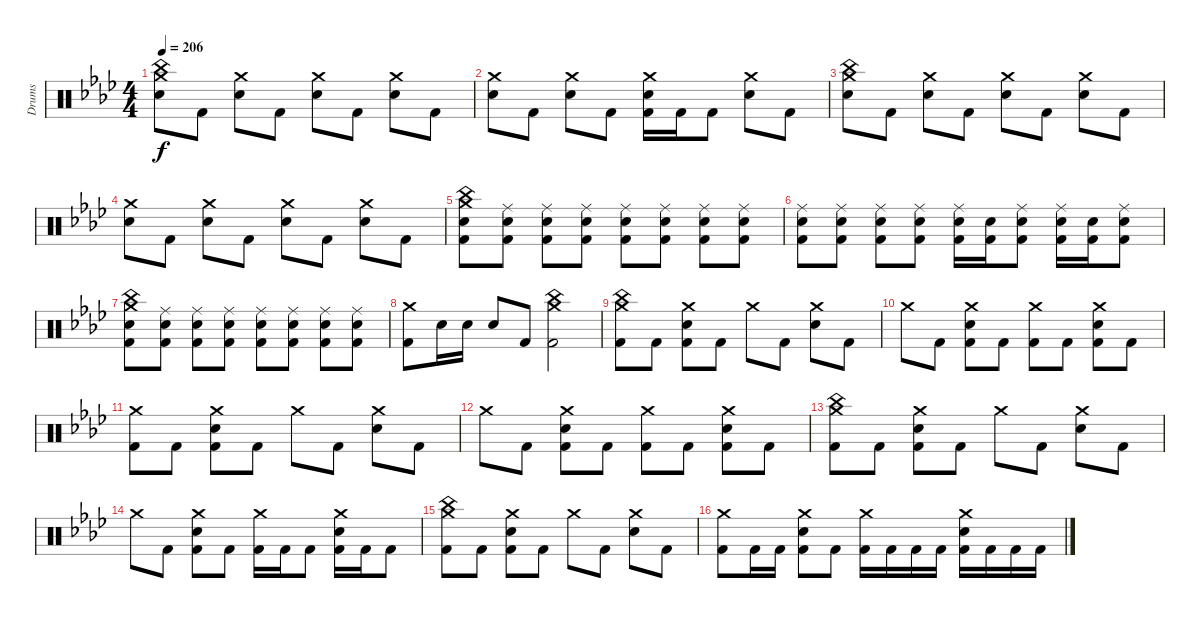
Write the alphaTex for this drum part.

\track ("Drums" "Drums") {instrument percussion}
\staff {score}
\articulation defaults
\ts (4 4)
\tempo 206
\clef neutral
\ks fminor
("Crash medium (hit)" "China (hit)" "Electric Snare (hit)").8{dy f} "Kick (hit) 2".8 ("Crash medium (hit)" "Electric Snare (hit)").8 "Kick (hit) 2".8 ("Crash medium (hit)" "Electric Snare (hit)").8 "Kick (hit) 2".8 ("Crash medium (hit)" "Electric Snare (hit)").8 "Kick (hit) 2".8 |
("Crash medium (hit)" "Electric Snare (hit)").8 "Kick (hit) 2".8 ("Crash medium (hit)" "Electric Snare (hit)").8 "Kick (hit) 2".8 ("Crash medium (hit)" "Electric Snare (hit)" "Kick (hit) 2").16 "Kick (hit) 2".16 "Kick (hit) 2".8 ("Crash medium (hit)" "Electric Snare (hit)").8 "Kick (hit) 2".8 |
("Crash medium (hit)" "China (hit)" "Electric Snare (hit)").8 "Kick (hit) 2".8 ("Crash medium (hit)" "Electric Snare (hit)").8 "Kick (hit) 2".8 ("Crash medium (hit)" "Electric Snare (hit)").8 "Kick (hit) 2".8 ("Crash medium (hit)" "Electric Snare (hit)").8 "Kick (hit) 2".8 |
("Crash medium (hit)" "Electric Snare (hit)").8 "Kick (hit) 2".8 ("Crash medium (hit)" "Electric Snare (hit)").8 "Kick (hit) 2".8 ("Crash medium (hit)" "Electric Snare (hit)").8 "Kick (hit) 2".8 ("Crash medium (hit)" "Electric Snare (hit)").8 "Kick (hit) 2".8 |
("Crash medium (hit)" "China (hit)" "Electric Snare (hit)" "Kick (hit) 2").8 ("Ride (middle)" "Electric Snare (hit)" "Kick (hit) 2").8 ("Ride (middle)" "Electric Snare (hit)" "Kick (hit) 2").8 ("Ride (middle)" "Electric Snare (hit)" "Kick (hit) 2").8 ("Ride (middle)" "Electric Snare (hit)" "Kick (hit) 2").8 ("Ride (middle)" "Electric Snare (hit)" "Kick (hit) 2").8 ("Ride (middle)" "Electric Snare (hit)" "Kick (hit) 2").8 ("Ride (middle)" "Electric Snare (hit)" "Kick (hit) 2").8 |
("Ride (middle)" "Electric Snare (hit)" "Kick (hit) 2").8 ("Ride (middle)" "Electric Snare (hit)" "Kick (hit) 2").8 ("Ride (middle)" "Electric Snare (hit)" "Kick (hit) 2").8 ("Ride (middle)" "Electric Snare (hit)" "Kick (hit) 2").8 ("Ride (middle)" "Electric Snare (hit)" "Kick (hit) 2").16 ("Electric Snare (hit)" "Kick (hit) 2").16 ("Ride (middle)" "Electric Snare (hit)" "Kick (hit) 2").8 ("Ride (middle)" "Electric Snare (hit)" "Kick (hit) 2").16 ("Electric Snare (hit)" "Kick (hit) 2").16 ("Ride (middle)" "Electric Snare (hit)" "Kick (hit) 2").8 |
("Crash medium (hit)" "China (hit)" "Electric Snare (hit)" "Kick (hit) 2").8 ("Ride (middle)" "Electric Snare (hit)" "Kick (hit) 2").8 ("Ride (middle)" "Electric Snare (hit)" "Kick (hit) 2").8 ("Ride (middle)" "Electric Snare (hit)" "Kick (hit) 2").8 ("Ride (middle)" "Electric Snare (hit)" "Kick (hit) 2").8 ("Ride (middle)" "Electric Snare (hit)" "Kick (hit) 2").8 ("Ride (middle)" "Electric Snare (hit)" "Kick (hit) 2").8 ("Ride (middle)" "Electric Snare (hit)" "Kick (hit) 2").8 |
("Crash medium (hit)" "Kick (hit) 2").8 "Electric Snare (hit)".16 "Electric Snare (hit)".16 "Electric Snare (hit)".8 "Kick (hit) 2".8 ("Crash medium (hit)" "China (hit)" "Kick (hit) 2").2 |
("Crash medium (hit)" "China (hit)" "Kick (hit) 2").8 "Kick (hit) 2".8 ("Crash medium (hit)" "Electric Snare (hit)" "Kick (hit) 2").8 "Kick (hit) 2".8 "Crash medium (hit)".8 "Kick (hit) 2".8 ("Crash medium (hit)" "Electric Snare (hit)").8 "Kick (hit) 2".8 |
"Crash medium (hit)".8 "Kick (hit) 2".8 ("Crash medium (hit)" "Electric Snare (hit)" "Kick (hit) 2").8 "Kick (hit) 2".8 ("Crash medium (hit)" "Kick (hit) 2").8 "Kick (hit) 2".8 ("Crash medium (hit)" "Electric Snare (hit)" "Kick (hit) 2").8 "Kick (hit) 2".8 |
("Crash medium (hit)" "Kick (hit) 2").8 "Kick (hit) 2".8 ("Crash medium (hit)" "Electric Snare (hit)" "Kick (hit) 2").8 "Kick (hit) 2".8 "Crash medium (hit)".8 "Kick (hit) 2".8 ("Crash medium (hit)" "Electric Snare (hit)").8 "Kick (hit) 2".8 |
"Crash medium (hit)".8 "Kick (hit) 2".8 ("Crash medium (hit)" "Electric Snare (hit)" "Kick (hit) 2").8 "Kick (hit) 2".8 ("Crash medium (hit)" "Kick (hit) 2").8 "Kick (hit) 2".8 ("Crash medium (hit)" "Electric Snare (hit)" "Kick (hit) 2").8 "Kick (hit) 2".8 |
("Crash medium (hit)" "China (hit)" "Kick (hit) 2").8 "Kick (hit) 2".8 ("Crash medium (hit)" "Electric Snare (hit)" "Kick (hit) 2").8 "Kick (hit) 2".8 "Crash medium (hit)".8 "Kick (hit) 2".8 ("Crash medium (hit)" "Electric Snare (hit)").8 "Kick (hit) 2".8 |
"Crash medium (hit)".8 "Kick (hit) 2".8 ("Crash medium (hit)" "Electric Snare (hit)" "Kick (hit) 2").8 "Kick (hit) 2".8 ("Crash medium (hit)" "Kick (hit) 2").16 "Kick (hit) 2".16 "Kick (hit) 2".8 ("Crash medium (hit)" "Electric Snare (hit)" "Kick (hit) 2").16 "Kick (hit) 2".16 "Kick (hit) 2".8 |
("Crash medium (hit)" "China (hit)" "Kick (hit) 2").8 "Kick (hit) 2".8 ("Crash medium (hit)" "Electric Snare (hit)" "Kick (hit) 2").8 "Kick (hit) 2".8 "Crash medium (hit)".8 "Kick (hit) 2".8 ("Crash medium (hit)" "Electric Snare (hit)").8 "Kick (hit) 2".8 |
("Crash medium (hit)" "Kick (hit) 2").8 "Kick (hit) 2".16 "Kick (hit) 2".16 ("Crash medium (hit)" "Electric Snare (hit)" "Kick (hit) 2").8 "Kick (hit) 2".8 ("Crash medium (hit)" "Kick (hit) 2").16 "Kick (hit) 2".16 "Kick (hit) 2".16 "Kick (hit) 2".16 ("Crash medium (hit)" "Electric Snare (hit)" "Kick (hit) 2").16 "Kick (hit) 2".16 "Kick (hit) 2".16 "Kick (hit) 2".16
